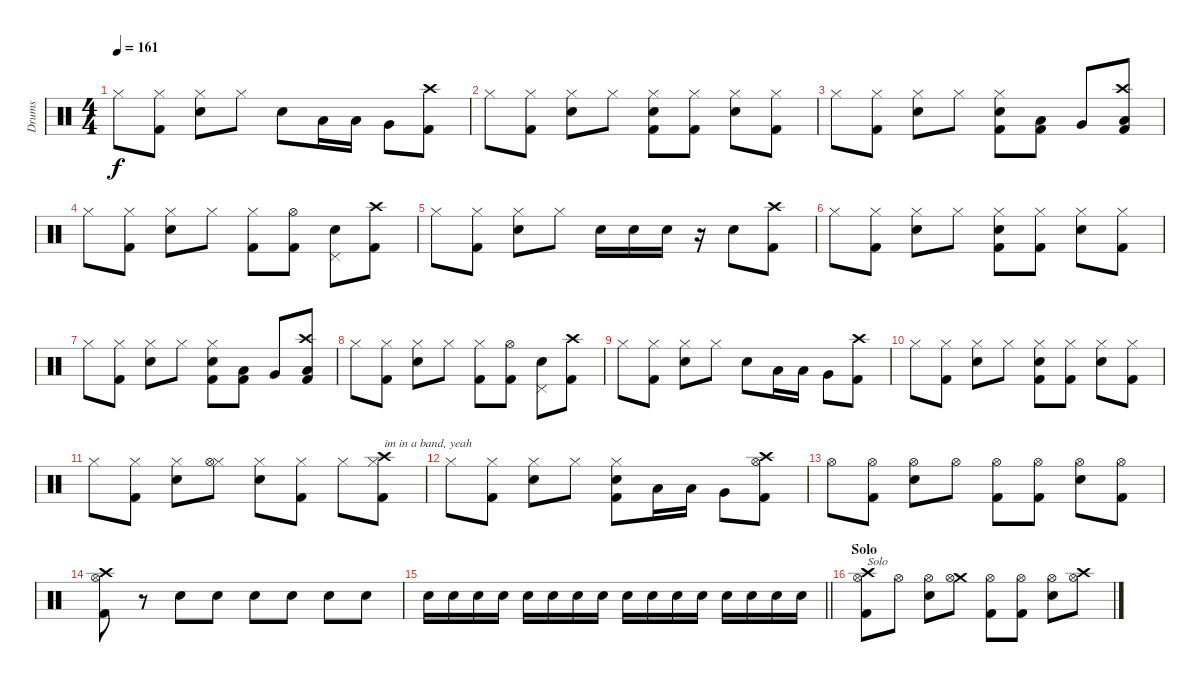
\track ("Drums" "Drums") {instrument percussion}
\staff {score}
\articulation defaults
\ts (4 4)
\tempo 161
\clef neutral
\ks c "Hi-Hat (closed)".8{dy f}
("Hi-Hat (closed)" "Kick (hit) 2").8 ("Hi-Hat (closed)" "Electric Snare (hit)").8 "Hi-Hat (closed)".8 "Electric Snare (hit)".8 "Low Tom (hit)".16 "Low Tom (hit)".16 "Very Low Tom (hit)".8 ("Crash high (hit)" "Kick (hit) 2").8 |
"Hi-Hat (closed)".8 ("Hi-Hat (closed)" "Kick (hit) 2").8 ("Hi-Hat (closed)" "Electric Snare (hit)").8 "Hi-Hat (closed)".8 ("Hi-Hat (closed)" "Electric Snare (hit)" "Kick (hit) 2").8 ("Hi-Hat (closed)" "Kick (hit) 2").8 ("Hi-Hat (closed)" "Electric Snare (hit)").8 ("Hi-Hat (closed)" "Kick (hit) 2").8 |
"Hi-Hat (closed)".8 ("Hi-Hat (closed)" "Kick (hit) 2").8 ("Hi-Hat (closed)" "Electric Snare (hit)").8 "Hi-Hat (closed)".8 ("Hi-Hat (closed)" "Electric Snare (hit)" "Kick (hit) 2").8 ("Low Tom (hit)" "Kick (hit) 2").8 "Very Low Tom (hit)".8 ("Crash high (hit)" "Low Floor Tom (hit)" "Kick (hit) 2").8 |
"Hi-Hat (closed)".8 ("Hi-Hat (closed)" "Kick (hit) 2").8 ("Hi-Hat (closed)" "Electric Snare (hit)").8 "Hi-Hat (closed)".8 ("Hi-Hat (closed)" "Kick (hit) 2").8 ("Hi-Hat (open)" "Kick (hit) 2").8 ("Pedal Hi-Hat (hit)" "Electric Snare (hit)").8 ("Crash high (hit)" "Kick (hit) 2").8 |
"Hi-Hat (closed)".8 ("Hi-Hat (closed)" "Kick (hit) 2").8 ("Hi-Hat (closed)" "Electric Snare (hit)").8 "Hi-Hat (closed)".8 "Electric Snare (hit)".16 "Electric Snare (hit)".16 "Electric Snare (hit)".16 r.16 "Electric Snare (hit)".8 ("Crash high (hit)" "Kick (hit) 2").8 |
"Hi-Hat (closed)".8 ("Hi-Hat (closed)" "Kick (hit) 2").8 ("Hi-Hat (closed)" "Electric Snare (hit)").8 "Hi-Hat (closed)".8 ("Hi-Hat (closed)" "Electric Snare (hit)" "Kick (hit) 2").8 ("Hi-Hat (closed)" "Kick (hit) 2").8 ("Hi-Hat (closed)" "Electric Snare (hit)").8 ("Hi-Hat (closed)" "Kick (hit) 2").8 |
"Hi-Hat (closed)".8 ("Hi-Hat (closed)" "Kick (hit) 2").8 ("Hi-Hat (closed)" "Electric Snare (hit)").8 "Hi-Hat (closed)".8 ("Hi-Hat (closed)" "Electric Snare (hit)" "Kick (hit) 2").8 ("Low Tom (hit)" "Kick (hit) 2").8 "Very Low Tom (hit)".8 ("Crash high (hit)" "Low Floor Tom (hit)" "Kick (hit) 2").8 |
"Hi-Hat (closed)".8 ("Hi-Hat (closed)" "Kick (hit) 2").8 ("Hi-Hat (closed)" "Electric Snare (hit)").8 "Hi-Hat (closed)".8 ("Hi-Hat (closed)" "Kick (hit) 2").8 ("Hi-Hat (open)" "Kick (hit) 2").8 ("Pedal Hi-Hat (hit)" "Electric Snare (hit)").8 ("Crash high (hit)" "Kick (hit) 2").8 |
"Hi-Hat (closed)".8 ("Hi-Hat (closed)" "Kick (hit) 2").8 ("Hi-Hat (closed)" "Electric Snare (hit)").8 "Hi-Hat (closed)".8 "Electric Snare (hit)".8 "Low Tom (hit)".16 "Low Tom (hit)".16 "Very Low Tom (hit)".8 ("Crash high (hit)" "Kick (hit) 2").8 |
"Hi-Hat (closed)".8 ("Hi-Hat (closed)" "Kick (hit) 2").8 ("Hi-Hat (closed)" "Electric Snare (hit)").8 "Hi-Hat (closed)".8 ("Hi-Hat (closed)" "Electric Snare (hit)" "Kick (hit) 2").8 ("Hi-Hat (closed)" "Kick (hit) 2").8 ("Hi-Hat (closed)" "Electric Snare (hit)").8 ("Hi-Hat (closed)" "Kick (hit) 2").8 |
"Hi-Hat (closed)".8 ("Hi-Hat (closed)" "Kick (hit) 2").8 ("Hi-Hat (closed)" "Electric Snare (hit)").8 ("Hi-Hat (closed)" "Hi-Hat (open)").8 ("Hi-Hat (closed)" "Electric Snare (hit)").8 ("Hi-Hat (closed)" "Kick (hit) 2").8 "Hi-Hat (closed)".8 ("Crash high (hit)" "Hi-Hat (closed)" "Kick (hit) 2").8{txt "im in a band, yeah"} |
"Hi-Hat (closed)".8 ("Hi-Hat (closed)" "Kick (hit) 2").8 ("Hi-Hat (closed)" "Electric Snare (hit)").8 "Hi-Hat (closed)".8 ("Hi-Hat (closed)" "Electric Snare (hit)" "Kick (hit) 2").8 "Low Tom (hit)".16 "Low Tom (hit)".16 "Very Low Tom (hit)".8 ("Crash high (hit)" "Hi-Hat (open)" "Kick (hit) 2").8 |
"Hi-Hat (open)".8 ("Hi-Hat (open)" "Kick (hit) 2").8 ("Hi-Hat (open)" "Electric Snare (hit)").8 "Hi-Hat (open)".8 ("Hi-Hat (open)" "Kick (hit) 2").8 ("Hi-Hat (open)" "Kick (hit) 2").8 ("Hi-Hat (open)" "Electric Snare (hit)").8 ("Hi-Hat (open)" "Kick (hit) 2").8 |
("Crash high (hit)" "Hi-Hat (open)" "Kick (hit) 2").8 r.8 "Electric Snare (hit)".8 "Electric Snare (hit)".8 "Electric Snare (hit)".8 "Electric Snare (hit)".8 "Electric Snare (hit)".8 "Electric Snare (hit)".8 |
\barLineRight lightlight "Electric Snare (hit)".16 "Electric Snare (hit)".16 "Electric Snare (hit)".16 "Electric Snare (hit)".16 "Electric Snare (hit)".16 "Electric Snare (hit)".16 "Electric Snare (hit)".16 "Electric Snare (hit)".16 "Electric Snare (hit)".16 "Electric Snare (hit)".16 "Electric Snare (hit)".16 "Electric Snare (hit)".16 "Electric Snare (hit)".16 "Electric Snare (hit)".16 "Electric Snare (hit)".16 "Electric Snare (hit)".16
|
\section ("" "Solo")
("Crash high (hit)" "Hi-Hat (open)" "Kick (hit) 2").8{txt "Solo"} "Hi-Hat (open)".8 ("Hi-Hat (open)" "Electric Snare (hit)").8 ("Crash medium (hit)" "Hi-Hat (open)").8 ("Hi-Hat (open)" "Kick (hit) 2").8 ("Hi-Hat (open)" "Kick (hit) 2").8 ("Hi-Hat (open)" "Electric Snare (hit)").8 ("Crash high (hit)" "Hi-Hat (open)").8
